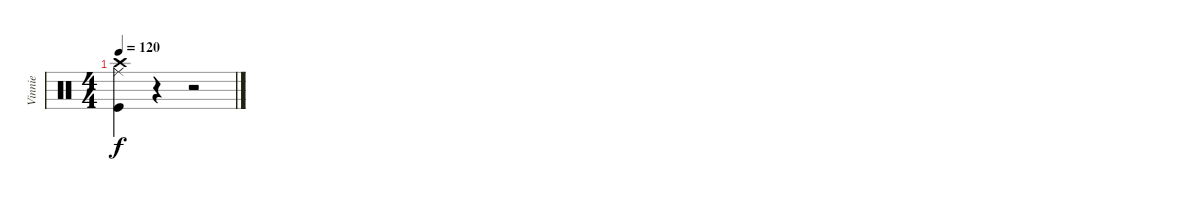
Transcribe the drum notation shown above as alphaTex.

\track ("Vinnie" "Vinnie") {instrument percussion}
\staff {score}
\articulation defaults
\ts (4 4)
\tempo 120
\clef neutral
\ks c
("Ride (middle)" "Crash high (hit)" "Kick (hit)").4{dy f} r.4 r.2
